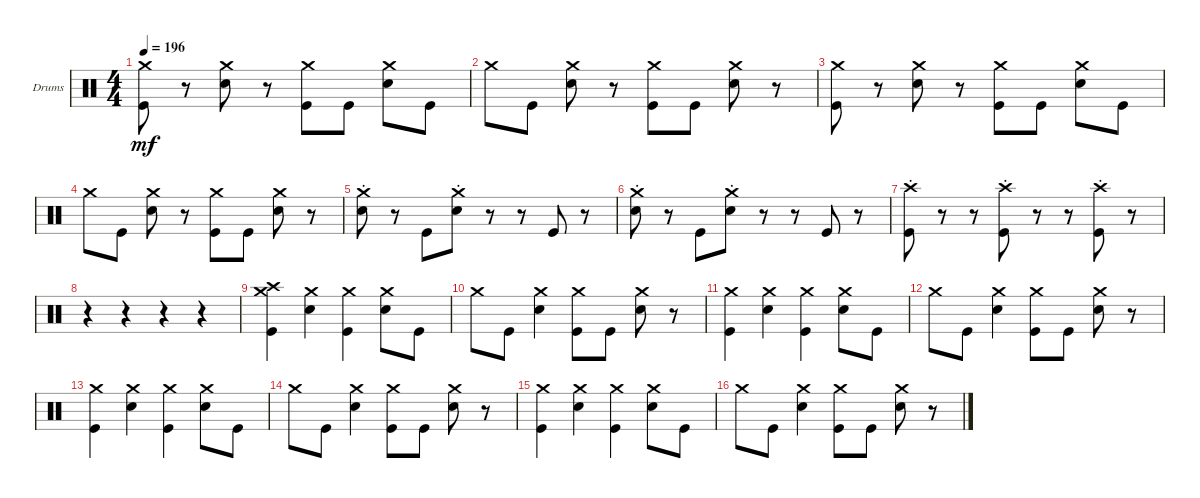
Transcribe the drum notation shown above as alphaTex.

\defaultSystemsLayout 4
\bracketExtendMode groupsimilarinstruments
\firstSystemTrackNameOrientation horizontal
\otherSystemsTrackNameOrientation horizontal
\track ("Drumkit" "Drums") {instrument percussion}
\staff {score}
\articulation defaults
\ts (4 4)
\tempo 196
\clef neutral
\ks c
("Kick (hit)" "Crash medium (hit)").8{dy mf} r.8 ("Snare (hit) 2" "Crash medium (hit)").8 r.8 ("Kick (hit)" "Crash medium (hit)").8 "Kick (hit)".8 ("Snare (hit) 2" "Crash medium (hit)").8 "Kick (hit)".8 |
"Crash medium (hit)".8 "Kick (hit)".8 ("Snare (hit) 2" "Crash medium (hit)").8 r.8 ("Kick (hit)" "Crash medium (hit)").8 "Kick (hit)".8 ("Snare (hit) 2" "Crash medium (hit)").8 r.8 |
("Kick (hit)" "Crash medium (hit)").8 r.8 ("Snare (hit) 2" "Crash medium (hit)").8 r.8 ("Kick (hit)" "Crash medium (hit)").8 "Kick (hit)".8 ("Snare (hit) 2" "Crash medium (hit)").8 "Kick (hit)".8 |
"Crash medium (hit)".8 "Kick (hit)".8 ("Snare (hit) 2" "Crash medium (hit)").8 r.8 ("Kick (hit)" "Crash medium (hit)").8 "Kick (hit)".8 ("Snare (hit) 2" "Crash medium (hit)").8 r.8 |
("Snare (hit) 2" "Crash medium (hit)"{st}).8 r.8 "Kick (hit)".8 ("Snare (hit) 2" "Crash medium (hit)"{st}).8 r.8 r.8 "Kick (hit)".8 r.8 |
("Snare (hit) 2" "Crash medium (hit)"{st}).8 r.8 "Kick (hit)".8 ("Snare (hit) 2" "Crash medium (hit)"{st}).8 r.8 r.8 "Kick (hit)".8 r.8 |
("Kick (hit)" "Crash high (hit)"{st}).8 r.8 r.8 ("Kick (hit)" "Crash high (hit)"{st}).8 r.8 r.8 ("Kick (hit)" "Crash high (hit)"{st}).8 r.8 |
r.4 r.4 r.4 r.4 |
("Crash high (hit)" "Kick (hit)" "Crash medium (hit)").4 ("Snare (hit) 2" "Crash medium (hit)").4 ("Kick (hit)" "Crash medium (hit)").4 ("Crash medium (hit)" "Snare (hit) 2").8 "Kick (hit)".8 |
"Crash medium (hit)".8 "Kick (hit)".8 ("Snare (hit) 2" "Crash medium (hit)").4 ("Kick (hit)" "Crash medium (hit)").8 "Kick (hit)".8 ("Snare (hit) 2" "Crash medium (hit)").8 r.8 |
("Kick (hit)" "Crash medium (hit)").4 ("Snare (hit) 2" "Crash medium (hit)").4 ("Kick (hit)" "Crash medium (hit)").4 ("Snare (hit) 2" "Crash medium (hit)").8 "Kick (hit)".8 |
"Crash medium (hit)".8 "Kick (hit)".8 ("Snare (hit) 2" "Crash medium (hit)").4 ("Kick (hit)" "Crash medium (hit)").8 "Kick (hit)".8 ("Snare (hit) 2" "Crash medium (hit)").8 r.8 |
("Kick (hit)" "Crash medium (hit)").4 ("Snare (hit) 2" "Crash medium (hit)").4 ("Kick (hit)" "Crash medium (hit)").4 ("Snare (hit) 2" "Crash medium (hit)").8 "Kick (hit)".8 |
"Crash medium (hit)".8 "Kick (hit)".8 ("Snare (hit) 2" "Crash medium (hit)").4 ("Kick (hit)" "Crash medium (hit)").8 "Kick (hit)".8 ("Snare (hit) 2" "Crash medium (hit)").8 r.8 |
("Kick (hit)" "Crash medium (hit)").4 ("Snare (hit) 2" "Crash medium (hit)").4 ("Kick (hit)" "Crash medium (hit)").4 ("Snare (hit) 2" "Crash medium (hit)").8 "Kick (hit)".8 |
"Crash medium (hit)".8 "Kick (hit)".8 ("Snare (hit) 2" "Crash medium (hit)").4 ("Kick (hit)" "Crash medium (hit)").8 "Kick (hit)".8 ("Snare (hit) 2" "Crash medium (hit)").8 r.8
